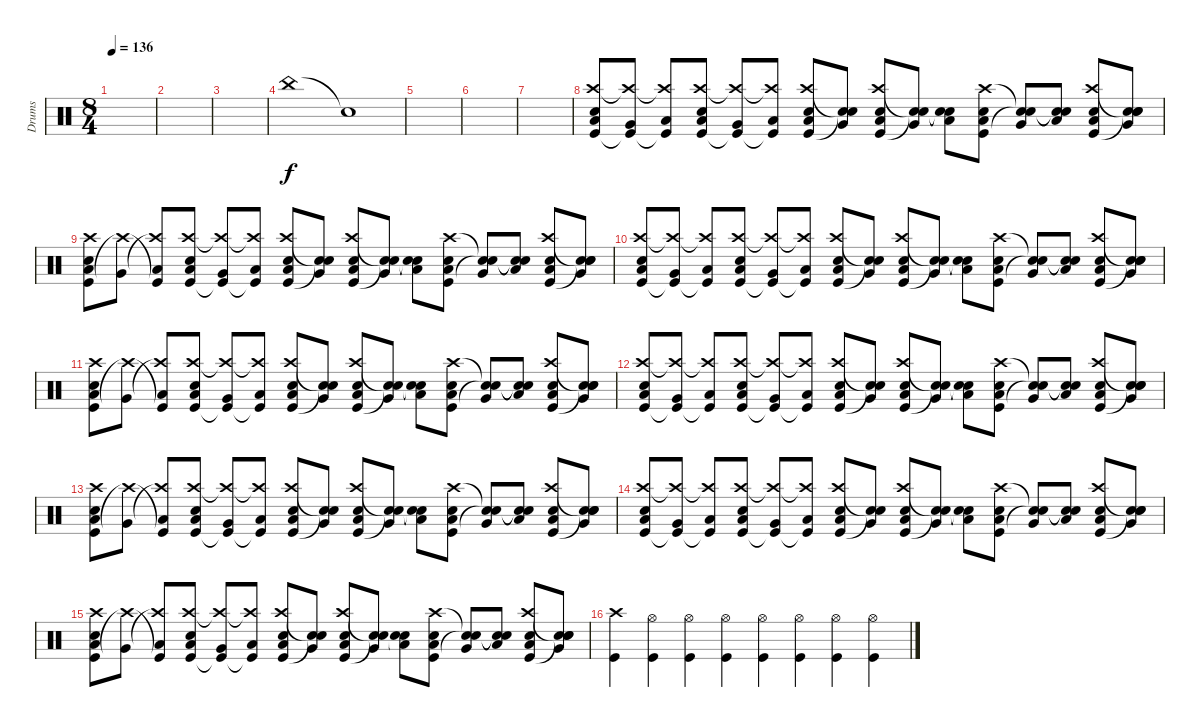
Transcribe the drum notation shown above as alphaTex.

\track ("Drums" "Drums") {instrument percussion}
\staff {score}
\articulation defaults
\ts (8 4)
\tempo 136
\clef neutral
\ks c
|
|
|
"China (hit)".1 "Snare (hit)"{t}.1 |
|
|
|
("Kick (hit)" "Crash high (hit)" "Low Tom (hit)" "Snare (hit) 2").8 ("Kick (hit)"{t} "Crash high (hit)"{t} "Very Low Tom (hit)").8 ("Kick (hit)"{t} "Crash high (hit)"{t} "Low Floor Tom (hit)").8 ("Kick (hit)" "Crash high (hit)" "Low Tom (hit)" "Snare (hit) 2").8 ("Kick (hit)"{t} "Crash high (hit)"{t} "Very Low Tom (hit)").8 ("Kick (hit)"{t} "Crash high (hit)"{t} "Low Floor Tom (hit)").8 ("Kick (hit)" "Crash high (hit)" "Low Tom (hit)" "Snare (hit) 2").8 ("Snare (hit)"{t} "Snare (hit)"{t} "Very Low Tom (hit)").8 ("Kick (hit)" "Crash high (hit)" "Low Tom (hit)" "Snare (hit) 2").8 ("Snare (hit)"{t} "Snare (hit)"{t} "Very Low Tom (hit)").8 ("Snare (hit)"{t} "Snare (hit)"{t} "Low Floor Tom (hit)").8 ("Kick (hit)" "Crash high (hit)" "Low Tom (hit)" "Snare (hit) 2").8 ("Snare (hit)"{t} "Snare (hit)"{t} "Very Low Tom (hit)").8 ("Snare (hit)"{t} "Snare (hit)"{t} "Low Floor Tom (hit)").8 ("Kick (hit)" "Crash high (hit)" "Low Tom (hit)" "Snare (hit) 2").8 ("Snare (hit)"{t} "Snare (hit)"{t} "Very Low Tom (hit)" "Snare (hit) 2").8 |
("Kick (hit)" "Crash high (hit)" "Low Tom (hit)" "Snare (hit) 2").8 ("Crash high (hit)"{t} "Very Low Tom (hit)").8 ("Kick (hit)"{t} "Crash high (hit)"{t} "Low Floor Tom (hit)").8 ("Kick (hit)" "Crash high (hit)" "Low Tom (hit)" "Snare (hit) 2").8 ("Kick (hit)"{t} "Crash high (hit)"{t} "Very Low Tom (hit)").8 ("Kick (hit)"{t} "Crash high (hit)"{t} "Low Floor Tom (hit)").8 ("Kick (hit)" "Crash high (hit)" "Low Tom (hit)" "Snare (hit) 2").8 ("Snare (hit)"{t} "Snare (hit)"{t} "Very Low Tom (hit)").8 ("Kick (hit)" "Crash high (hit)" "Low Tom (hit)" "Snare (hit) 2").8 ("Snare (hit)"{t} "Snare (hit)"{t} "Very Low Tom (hit)").8 ("Snare (hit)"{t} "Snare (hit)"{t} "Low Floor Tom (hit)").8 ("Kick (hit)" "Crash high (hit)" "Low Tom (hit)" "Snare (hit) 2").8 ("Snare (hit)"{t} "Snare (hit)"{t} "Very Low Tom (hit)").8 ("Snare (hit)"{t} "Snare (hit)"{t} "Low Floor Tom (hit)").8 ("Kick (hit)" "Crash high (hit)" "Low Tom (hit)" "Snare (hit) 2").8 ("Snare (hit)"{t} "Snare (hit)"{t} "Very Low Tom (hit)" "Snare (hit) 2").8 |
("Kick (hit)" "Crash high (hit)" "Low Tom (hit)" "Snare (hit) 2").8 ("Kick (hit)"{t} "Crash high (hit)"{t} "Very Low Tom (hit)").8 ("Kick (hit)"{t} "Crash high (hit)"{t} "Low Floor Tom (hit)").8 ("Kick (hit)" "Crash high (hit)" "Low Tom (hit)" "Snare (hit) 2").8 ("Kick (hit)"{t} "Crash high (hit)"{t} "Very Low Tom (hit)").8 ("Kick (hit)"{t} "Crash high (hit)"{t} "Low Floor Tom (hit)").8 ("Kick (hit)" "Crash high (hit)" "Low Tom (hit)" "Snare (hit) 2").8 ("Snare (hit)"{t} "Snare (hit)"{t} "Very Low Tom (hit)").8 ("Kick (hit)" "Crash high (hit)" "Low Tom (hit)" "Snare (hit) 2").8 ("Snare (hit)"{t} "Snare (hit)"{t} "Very Low Tom (hit)").8 ("Snare (hit)"{t} "Snare (hit)"{t} "Low Floor Tom (hit)").8 ("Kick (hit)" "Crash high (hit)" "Low Tom (hit)" "Snare (hit) 2").8 ("Snare (hit)"{t} "Snare (hit)"{t} "Very Low Tom (hit)").8 ("Snare (hit)"{t} "Snare (hit)"{t} "Low Floor Tom (hit)").8 ("Kick (hit)" "Crash high (hit)" "Low Tom (hit)" "Snare (hit) 2").8 ("Snare (hit)"{t} "Snare (hit)"{t} "Very Low Tom (hit)" "Snare (hit) 2").8 |
("Kick (hit)" "Crash high (hit)" "Low Tom (hit)" "Snare (hit) 2").8 ("Crash high (hit)"{t} "Very Low Tom (hit)").8 ("Kick (hit)"{t} "Crash high (hit)"{t} "Low Floor Tom (hit)").8 ("Kick (hit)" "Crash high (hit)" "Low Tom (hit)" "Snare (hit) 2").8 ("Kick (hit)"{t} "Crash high (hit)"{t} "Very Low Tom (hit)").8 ("Kick (hit)"{t} "Crash high (hit)"{t} "Low Floor Tom (hit)").8 ("Kick (hit)" "Crash high (hit)" "Low Tom (hit)" "Snare (hit) 2").8 ("Snare (hit)"{t} "Snare (hit)"{t} "Very Low Tom (hit)").8 ("Kick (hit)" "Crash high (hit)" "Low Tom (hit)" "Snare (hit) 2").8 ("Snare (hit)"{t} "Snare (hit)"{t} "Very Low Tom (hit)").8 ("Snare (hit)"{t} "Snare (hit)"{t} "Low Floor Tom (hit)").8 ("Kick (hit)" "Crash high (hit)" "Low Tom (hit)" "Snare (hit) 2").8 ("Snare (hit)"{t} "Snare (hit)"{t} "Very Low Tom (hit)").8 ("Snare (hit)"{t} "Snare (hit)"{t} "Low Floor Tom (hit)").8 ("Kick (hit)" "Crash high (hit)" "Low Tom (hit)" "Snare (hit) 2").8 ("Snare (hit)"{t} "Snare (hit)"{t} "Very Low Tom (hit)" "Snare (hit) 2").8 |
("Kick (hit)" "Crash high (hit)" "Low Tom (hit)" "Snare (hit) 2").8 ("Kick (hit)"{t} "Crash high (hit)"{t} "Very Low Tom (hit)").8 ("Kick (hit)"{t} "Crash high (hit)"{t} "Low Floor Tom (hit)").8 ("Kick (hit)" "Crash high (hit)" "Low Tom (hit)" "Snare (hit) 2").8 ("Kick (hit)"{t} "Crash high (hit)"{t} "Very Low Tom (hit)").8 ("Kick (hit)"{t} "Crash high (hit)"{t} "Low Floor Tom (hit)").8 ("Kick (hit)" "Crash high (hit)" "Low Tom (hit)" "Snare (hit) 2").8 ("Snare (hit)"{t} "Snare (hit)"{t} "Very Low Tom (hit)").8 ("Kick (hit)" "Crash high (hit)" "Low Tom (hit)" "Snare (hit) 2").8 ("Snare (hit)"{t} "Snare (hit)"{t} "Very Low Tom (hit)").8 ("Snare (hit)"{t} "Snare (hit)"{t} "Low Floor Tom (hit)").8 ("Kick (hit)" "Crash high (hit)" "Low Tom (hit)" "Snare (hit) 2").8 ("Snare (hit)"{t} "Snare (hit)"{t} "Very Low Tom (hit)").8 ("Snare (hit)"{t} "Snare (hit)"{t} "Low Floor Tom (hit)").8 ("Kick (hit)" "Crash high (hit)" "Low Tom (hit)" "Snare (hit) 2").8 ("Snare (hit)"{t} "Snare (hit)"{t} "Very Low Tom (hit)" "Snare (hit) 2").8 |
("Kick (hit)" "Crash high (hit)" "Low Tom (hit)" "Snare (hit) 2").8 ("Crash high (hit)"{t} "Very Low Tom (hit)").8 ("Kick (hit)"{t} "Crash high (hit)"{t} "Low Floor Tom (hit)").8 ("Kick (hit)" "Crash high (hit)" "Low Tom (hit)" "Snare (hit) 2").8 ("Kick (hit)"{t} "Crash high (hit)"{t} "Very Low Tom (hit)").8 ("Kick (hit)"{t} "Crash high (hit)"{t} "Low Floor Tom (hit)").8 ("Kick (hit)" "Crash high (hit)" "Low Tom (hit)" "Snare (hit) 2").8 ("Snare (hit)"{t} "Snare (hit)"{t} "Very Low Tom (hit)").8 ("Kick (hit)" "Crash high (hit)" "Low Tom (hit)" "Snare (hit) 2").8 ("Snare (hit)"{t} "Snare (hit)"{t} "Very Low Tom (hit)").8 ("Snare (hit)"{t} "Snare (hit)"{t} "Low Floor Tom (hit)").8 ("Kick (hit)" "Crash high (hit)" "Low Tom (hit)" "Snare (hit) 2").8 ("Snare (hit)"{t} "Snare (hit)"{t} "Very Low Tom (hit)").8 ("Snare (hit)"{t} "Snare (hit)"{t} "Low Floor Tom (hit)").8 ("Kick (hit)" "Crash high (hit)" "Low Tom (hit)" "Snare (hit) 2").8 ("Snare (hit)"{t} "Snare (hit)"{t} "Very Low Tom (hit)" "Snare (hit) 2").8 |
("Kick (hit)" "Crash high (hit)" "Low Tom (hit)" "Snare (hit) 2").8 ("Kick (hit)"{t} "Crash high (hit)"{t} "Very Low Tom (hit)").8 ("Kick (hit)"{t} "Crash high (hit)"{t} "Low Floor Tom (hit)").8 ("Kick (hit)" "Crash high (hit)" "Low Tom (hit)" "Snare (hit) 2").8 ("Kick (hit)"{t} "Crash high (hit)"{t} "Very Low Tom (hit)").8 ("Kick (hit)"{t} "Crash high (hit)"{t} "Low Floor Tom (hit)").8 ("Kick (hit)" "Crash high (hit)" "Low Tom (hit)" "Snare (hit) 2").8 ("Snare (hit)"{t} "Snare (hit)"{t} "Very Low Tom (hit)").8 ("Kick (hit)" "Crash high (hit)" "Low Tom (hit)" "Snare (hit) 2").8 ("Snare (hit)"{t} "Snare (hit)"{t} "Very Low Tom (hit)").8 ("Snare (hit)"{t} "Snare (hit)"{t} "Low Floor Tom (hit)").8 ("Kick (hit)" "Crash high (hit)" "Low Tom (hit)" "Snare (hit) 2").8 ("Snare (hit)"{t} "Snare (hit)"{t} "Very Low Tom (hit)").8 ("Snare (hit)"{t} "Snare (hit)"{t} "Low Floor Tom (hit)").8 ("Kick (hit)" "Crash high (hit)" "Low Tom (hit)" "Snare (hit) 2").8 ("Snare (hit)"{t} "Snare (hit)"{t} "Very Low Tom (hit)" "Snare (hit) 2").8 |
("Kick (hit)" "Crash high (hit)" "Low Tom (hit)" "Snare (hit) 2").8 ("Crash high (hit)"{t} "Very Low Tom (hit)").8 ("Kick (hit)"{t} "Crash high (hit)"{t} "Low Floor Tom (hit)").8 ("Kick (hit)" "Crash high (hit)" "Low Tom (hit)" "Snare (hit) 2").8 ("Kick (hit)"{t} "Crash high (hit)"{t} "Very Low Tom (hit)").8 ("Kick (hit)"{t} "Crash high (hit)"{t} "Low Floor Tom (hit)").8 ("Kick (hit)" "Crash high (hit)" "Low Tom (hit)" "Snare (hit) 2").8 ("Snare (hit)"{t} "Snare (hit)"{t} "Very Low Tom (hit)").8 ("Kick (hit)" "Crash high (hit)" "Low Tom (hit)" "Snare (hit) 2").8 ("Snare (hit)"{t} "Snare (hit)"{t} "Very Low Tom (hit)").8 ("Snare (hit)"{t} "Snare (hit)"{t} "Low Floor Tom (hit)").8 ("Kick (hit)" "Crash high (hit)" "Low Tom (hit)" "Snare (hit) 2").8 ("Snare (hit)"{t} "Snare (hit)"{t} "Very Low Tom (hit)").8 ("Snare (hit)"{t} "Snare (hit)"{t} "Low Floor Tom (hit)").8 ("Kick (hit)" "Crash high (hit)" "Low Tom (hit)" "Snare (hit) 2").8 ("Snare (hit)"{t} "Snare (hit)"{t} "Very Low Tom (hit)" "Snare (hit) 2").8 |
("Kick (hit)" "Crash high (hit)").4 ("Kick (hit)" "Hi-Hat (open)").4 ("Kick (hit)" "Hi-Hat (open)").4 ("Kick (hit)" "Hi-Hat (open)").4 ("Kick (hit)" "Hi-Hat (open)").4 ("Kick (hit)" "Hi-Hat (open)").4 ("Kick (hit)" "Hi-Hat (open)").4 ("Kick (hit)" "Hi-Hat (open)").4
